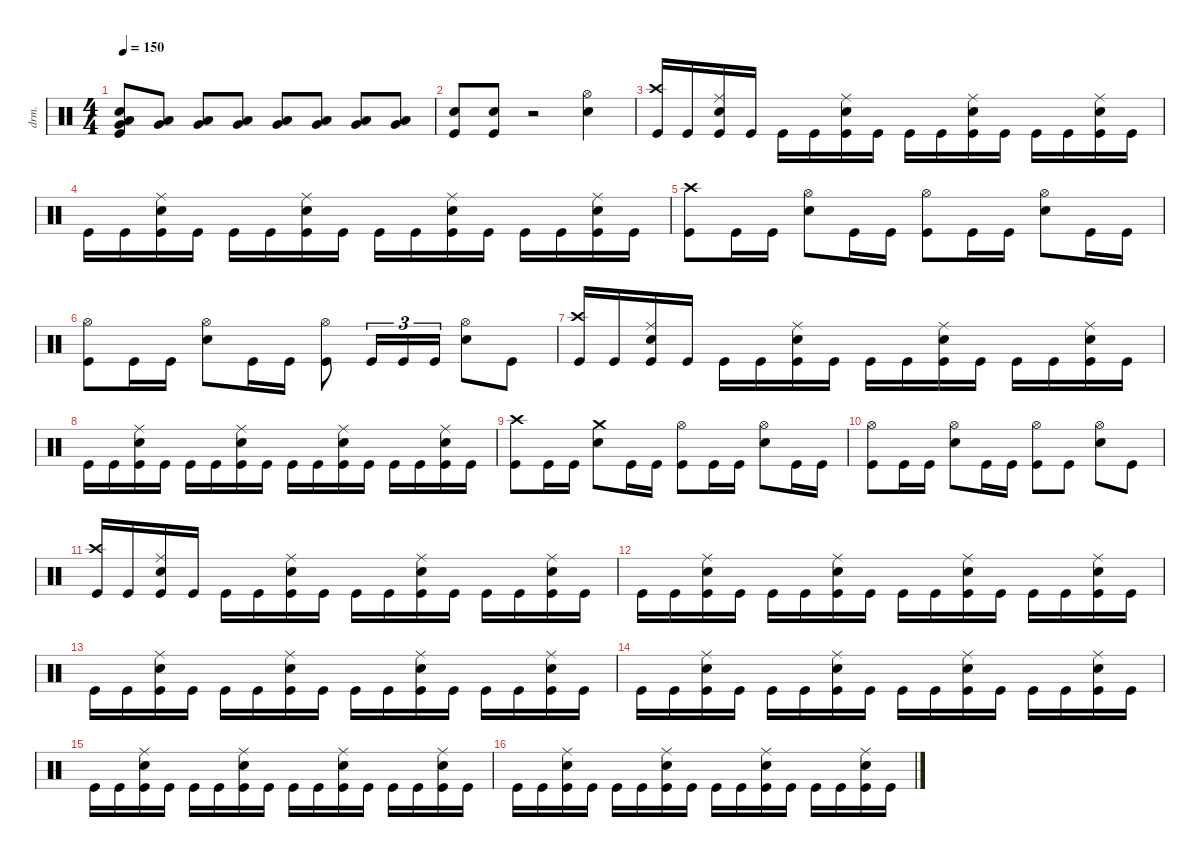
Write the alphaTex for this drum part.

\defaultSystemsLayout 4
\hideDynamics
\bracketExtendMode nobrackets
\otherSystemsTrackNameOrientation horizontal
\track ("Percussions" "drm.") {instrument percussion}
\staff {score}
\articulation defaults
\ts (4 4)
\tempo 150
\clef neutral
\ks c
("Kick (hit)" "Snare (hit) 2" "Very Low Tom (hit)" "Low Tom (hit)").8{dy mp beam Up} ("Very Low Tom (hit)" "Low Tom (hit)").8{dy p beam Up} ("Very Low Tom (hit)" "Low Tom (hit)").8{dy mp beam Up} ("Very Low Tom (hit)" "Low Tom (hit)").8{beam Up} ("Very Low Tom (hit)" "Low Tom (hit)").8{beam Up} ("Very Low Tom (hit)" "Low Tom (hit)").8{beam Up} ("Very Low Tom (hit)" "Low Tom (hit)").8{beam Up} ("Very Low Tom (hit)" "Low Tom (hit)").8{beam Up} |
("Kick (hit)" "Snare (hit) 2").8{dy mf beam Up} ("Kick (hit)" "Snare (hit) 2").8{beam Up} r.2{beam Up} ("Snare (hit) 2" "Hi-Hat (open)").4{dy ff beam Down} |
("Kick (hit)" "Crash high (hit)").16{dy mf beam Up} "Kick (hit)".16{beam Up} ("Kick (hit)" "Snare (hit) 2" "Ride (middle)").16{beam Up} "Kick (hit)".16{beam Up} "Kick (hit)".16{beam Down} "Kick (hit)".16{beam Down} ("Kick (hit)" "Snare (hit) 2" "Ride (middle)").16{beam Down} "Kick (hit)".16{beam Down} "Kick (hit)".16{beam Down} "Kick (hit)".16{beam Down} ("Kick (hit)" "Snare (hit) 2" "Ride (middle)").16{beam Down} "Kick (hit)".16{beam Down} "Kick (hit)".16{beam Down} "Kick (hit)".16{beam Down} ("Kick (hit)" "Snare (hit) 2" "Ride (middle)").16{beam Down} "Kick (hit)".16{beam Down} |
"Kick (hit)".16{beam Down} "Kick (hit)".16{beam Down} ("Kick (hit)" "Snare (hit) 2" "Ride (middle)").16{beam Down} "Kick (hit)".16{beam Down} "Kick (hit)".16{beam Down} "Kick (hit)".16{beam Down} ("Kick (hit)" "Snare (hit) 2" "Ride (middle)").16{beam Down} "Kick (hit)".16{beam Down} "Kick (hit)".16{beam Down} "Kick (hit)".16{beam Down} ("Kick (hit)" "Snare (hit) 2" "Ride (middle)").16{beam Down} "Kick (hit)".16{beam Down} "Kick (hit)".16{beam Down} "Kick (hit)".16{beam Down} ("Kick (hit)" "Snare (hit) 2" "Ride (middle)").16{beam Down} "Kick (hit)".16{beam Down} |
("Kick (hit)" "Crash high (hit)").8{dy f beam Down} "Kick (hit)".16{beam Down} "Kick (hit)".16{beam Down} ("Snare (hit) 2" "Hi-Hat (open)").8{beam Down} "Kick (hit)".16{beam Down} "Kick (hit)".16{beam Down} ("Kick (hit)" "Hi-Hat (open)").8{beam Down} "Kick (hit)".16{beam Down} "Kick (hit)".16{beam Down} ("Snare (hit) 2" "Hi-Hat (open)").8{beam Down} "Kick (hit)".16{beam Down} "Kick (hit)".16{beam Down} |
("Kick (hit)" "Hi-Hat (open)").8{beam Down} "Kick (hit)".16{beam Down} "Kick (hit)".16{beam Down} ("Snare (hit) 2" "Hi-Hat (open)").8{beam Down} "Kick (hit)".16{beam Down} "Kick (hit)".16{beam Down} ("Kick (hit)" "Hi-Hat (open)").8{beam Down} "Kick (hit)".16{tu (3 2) beam Up} "Kick (hit)".16{tu (3 2) beam Up} "Kick (hit)".16{tu (3 2) beam Up} ("Snare (hit) 2" "Hi-Hat (open)").8{beam Down} "Kick (hit)".8{beam Down} |
("Kick (hit)" "Crash high (hit)").16{dy mf beam Up} "Kick (hit)".16{beam Up} ("Kick (hit)" "Snare (hit) 2" "Ride (middle)").16{beam Up} "Kick (hit)".16{beam Up} "Kick (hit)".16{beam Down} "Kick (hit)".16{beam Down} ("Kick (hit)" "Snare (hit) 2" "Ride (middle)").16{beam Down} "Kick (hit)".16{beam Down} "Kick (hit)".16{beam Down} "Kick (hit)".16{beam Down} ("Kick (hit)" "Snare (hit) 2" "Ride (middle)").16{beam Down} "Kick (hit)".16{beam Down} "Kick (hit)".16{beam Down} "Kick (hit)".16{beam Down} ("Kick (hit)" "Snare (hit) 2" "Ride (middle)").16{beam Down} "Kick (hit)".16{beam Down} |
"Kick (hit)".16{beam Down} "Kick (hit)".16{beam Down} ("Kick (hit)" "Snare (hit) 2" "Ride (middle)").16{beam Down} "Kick (hit)".16{beam Down} "Kick (hit)".16{beam Down} "Kick (hit)".16{beam Down} ("Kick (hit)" "Snare (hit) 2" "Ride (middle)").16{beam Down} "Kick (hit)".16{beam Down} "Kick (hit)".16{beam Down} "Kick (hit)".16{beam Down} ("Kick (hit)" "Snare (hit) 2" "Ride (middle)").16{beam Down} "Kick (hit)".16{beam Down} "Kick (hit)".16{beam Down} "Kick (hit)".16{beam Down} ("Kick (hit)" "Snare (hit) 2" "Ride (middle)").16{beam Down} "Kick (hit)".16{beam Down} |
("Kick (hit)" "Crash high (hit)").8{dy f beam Down} "Kick (hit)".16{beam Down} "Kick (hit)".16{beam Down} ("Snare (hit) 2" "Crash medium (hit)").8{beam Down} "Kick (hit)".16{beam Down} "Kick (hit)".16{beam Down} ("Kick (hit)" "Hi-Hat (open)").8{beam Down} "Kick (hit)".16{beam Down} "Kick (hit)".16{beam Down} ("Snare (hit) 2" "Hi-Hat (open)").8{beam Down} "Kick (hit)".16{beam Down} "Kick (hit)".16{beam Down} |
("Kick (hit)" "Hi-Hat (open)").8{beam Down} "Kick (hit)".16{beam Down} "Kick (hit)".16{beam Down} ("Snare (hit) 2" "Hi-Hat (open)").8{beam Down} "Kick (hit)".16{beam Down} "Kick (hit)".16{beam Down} ("Kick (hit)" "Hi-Hat (open)").8{beam Down} "Kick (hit)".8{beam Down} ("Snare (hit) 2" "Hi-Hat (open)").8{beam Down} "Kick (hit)".8{beam Down} |
("Kick (hit)" "Crash high (hit)").16{dy mf beam Up} "Kick (hit)".16{beam Up} ("Kick (hit)" "Snare (hit) 2" "Ride (middle)").16{beam Up} "Kick (hit)".16{beam Up} "Kick (hit)".16{beam Down} "Kick (hit)".16{beam Down} ("Kick (hit)" "Snare (hit) 2" "Ride (middle)").16{beam Down} "Kick (hit)".16{beam Down} "Kick (hit)".16{beam Down} "Kick (hit)".16{beam Down} ("Kick (hit)" "Snare (hit) 2" "Ride (middle)").16{beam Down} "Kick (hit)".16{beam Down} "Kick (hit)".16{beam Down} "Kick (hit)".16{beam Down} ("Kick (hit)" "Snare (hit) 2" "Ride (middle)").16{beam Down} "Kick (hit)".16{beam Down} |
"Kick (hit)".16{beam Down} "Kick (hit)".16{beam Down} ("Kick (hit)" "Snare (hit) 2" "Ride (middle)").16{beam Down} "Kick (hit)".16{beam Down} "Kick (hit)".16{beam Down} "Kick (hit)".16{beam Down} ("Kick (hit)" "Snare (hit) 2" "Ride (middle)").16{beam Down} "Kick (hit)".16{beam Down} "Kick (hit)".16{beam Down} "Kick (hit)".16{beam Down} ("Kick (hit)" "Snare (hit) 2" "Ride (middle)").16{beam Down} "Kick (hit)".16{beam Down} "Kick (hit)".16{beam Down} "Kick (hit)".16{beam Down} ("Kick (hit)" "Snare (hit) 2" "Ride (middle)").16{beam Down} "Kick (hit)".16{beam Down} |
"Kick (hit)".16{beam Down} "Kick (hit)".16{beam Down} ("Kick (hit)" "Snare (hit) 2" "Ride (middle)").16{beam Down} "Kick (hit)".16{beam Down} "Kick (hit)".16{beam Down} "Kick (hit)".16{beam Down} ("Kick (hit)" "Snare (hit) 2" "Ride (middle)").16{beam Down} "Kick (hit)".16{beam Down} "Kick (hit)".16{beam Down} "Kick (hit)".16{beam Down} ("Kick (hit)" "Snare (hit) 2" "Ride (middle)").16{beam Down} "Kick (hit)".16{beam Down} "Kick (hit)".16{beam Down} "Kick (hit)".16{beam Down} ("Kick (hit)" "Snare (hit) 2" "Ride (middle)").16{beam Down} "Kick (hit)".16{beam Down} |
"Kick (hit)".16{beam Down} "Kick (hit)".16{beam Down} ("Kick (hit)" "Snare (hit) 2" "Ride (middle)").16{beam Down} "Kick (hit)".16{beam Down} "Kick (hit)".16{beam Down} "Kick (hit)".16{beam Down} ("Kick (hit)" "Snare (hit) 2" "Ride (middle)").16{beam Down} "Kick (hit)".16{beam Down} "Kick (hit)".16{beam Down} "Kick (hit)".16{beam Down} ("Kick (hit)" "Snare (hit) 2" "Ride (middle)").16{beam Down} "Kick (hit)".16{beam Down} "Kick (hit)".16{beam Down} "Kick (hit)".16{beam Down} ("Kick (hit)" "Snare (hit) 2" "Ride (middle)").16{beam Down} "Kick (hit)".16{beam Down} |
"Kick (hit)".16{beam Down} "Kick (hit)".16{beam Down} ("Kick (hit)" "Snare (hit) 2" "Ride (middle)").16{beam Down} "Kick (hit)".16{beam Down} "Kick (hit)".16{beam Down} "Kick (hit)".16{beam Down} ("Kick (hit)" "Snare (hit) 2" "Ride (middle)").16{beam Down} "Kick (hit)".16{beam Down} "Kick (hit)".16{beam Down} "Kick (hit)".16{beam Down} ("Kick (hit)" "Snare (hit) 2" "Ride (middle)").16{beam Down} "Kick (hit)".16{beam Down} "Kick (hit)".16{beam Down} "Kick (hit)".16{beam Down} ("Kick (hit)" "Snare (hit) 2" "Ride (middle)").16{beam Down} "Kick (hit)".16{beam Down} |
"Kick (hit)".16{beam Down} "Kick (hit)".16{beam Down} ("Kick (hit)" "Snare (hit) 2" "Ride (middle)").16{beam Down} "Kick (hit)".16{beam Down} "Kick (hit)".16{beam Down} "Kick (hit)".16{beam Down} ("Kick (hit)" "Snare (hit) 2" "Ride (middle)").16{beam Down} "Kick (hit)".16{beam Down} "Kick (hit)".16{beam Down} "Kick (hit)".16{beam Down} ("Kick (hit)" "Snare (hit) 2" "Ride (middle)").16{beam Down} "Kick (hit)".16{beam Down} "Kick (hit)".16{beam Down} "Kick (hit)".16{beam Down} ("Kick (hit)" "Snare (hit) 2" "Ride (middle)").16{beam Down} "Kick (hit)".16{beam Down}
